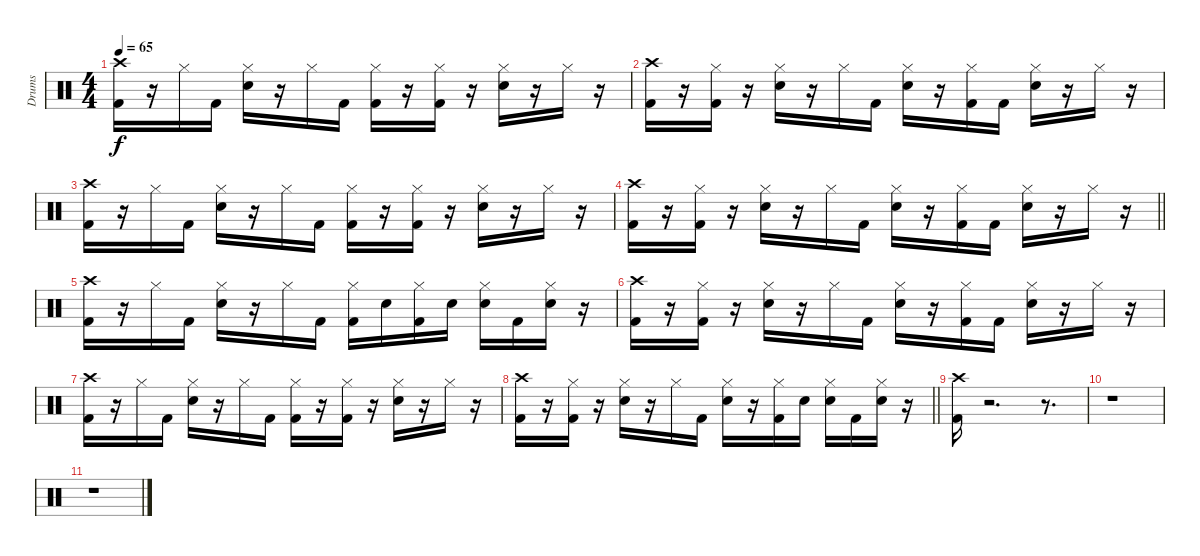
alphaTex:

\track ("Drums" "Drums") {instrument percussion}
\staff {score}
\articulation defaults
\ts (4 4)
\tempo 65
\clef neutral
\ks c
("Crash high (hit)" "Kick (hit) 2").16{dy f} r.16 "Hi-Hat (closed)".16 "Kick (hit) 2".16 ("Hi-Hat (closed)" "Snare (hit) 2").16 r.16 "Hi-Hat (closed)".16 "Kick (hit) 2".16 ("Hi-Hat (closed)" "Kick (hit) 2").16 r.16 ("Hi-Hat (closed)" "Kick (hit) 2").16 r.16 ("Hi-Hat (closed)" "Snare (hit) 2").16 r.16 "Hi-Hat (closed)".16 r.16 |
("Crash high (hit)" "Kick (hit) 2").16 r.16 ("Hi-Hat (closed)" "Kick (hit) 2").16 r.16 ("Hi-Hat (closed)" "Snare (hit) 2").16 r.16 "Hi-Hat (closed)".16 "Kick (hit) 2".16 ("Hi-Hat (closed)" "Snare (hit) 2").16 r.16 ("Hi-Hat (closed)" "Kick (hit) 2").16 "Kick (hit) 2".16 ("Hi-Hat (closed)" "Snare (hit) 2").16 r.16 "Hi-Hat (closed)".16 r.16 |
("Crash high (hit)" "Kick (hit) 2").16 r.16 "Hi-Hat (closed)".16 "Kick (hit) 2".16 ("Hi-Hat (closed)" "Snare (hit) 2").16 r.16 "Hi-Hat (closed)".16 "Kick (hit) 2".16 ("Hi-Hat (closed)" "Kick (hit) 2").16 r.16 ("Hi-Hat (closed)" "Kick (hit) 2").16 r.16 ("Hi-Hat (closed)" "Snare (hit) 2").16 r.16 "Hi-Hat (closed)".16 r.16 |
\barLineRight lightlight
("Crash high (hit)" "Kick (hit) 2").16 r.16 ("Hi-Hat (closed)" "Kick (hit) 2").16 r.16 ("Hi-Hat (closed)" "Snare (hit) 2").16 r.16 "Hi-Hat (closed)".16 "Kick (hit) 2".16 ("Hi-Hat (closed)" "Snare (hit) 2").16 r.16 ("Hi-Hat (closed)" "Kick (hit) 2").16 "Kick (hit) 2".16 ("Hi-Hat (closed)" "Snare (hit) 2").16 r.16 "Hi-Hat (closed)".16 r.16 |
("Crash high (hit)" "Kick (hit) 2").16 r.16 "Hi-Hat (closed)".16 "Kick (hit) 2".16 ("Hi-Hat (closed)" "Snare (hit) 2").16 r.16 "Hi-Hat (closed)".16 "Kick (hit) 2".16 ("Hi-Hat (closed)" "Kick (hit) 2").16 "Snare (hit) 2".16 ("Hi-Hat (closed)" "Kick (hit) 2").16 "Snare (hit) 2".16 ("Hi-Hat (closed)" "Snare (hit) 2").16 "Kick (hit) 2".16 ("Hi-Hat (closed)" "Snare (hit) 2").16 r.16 |
("Crash high (hit)" "Kick (hit) 2").16 r.16 ("Hi-Hat (closed)" "Kick (hit) 2").16 r.16 ("Hi-Hat (closed)" "Snare (hit) 2").16 r.16 "Hi-Hat (closed)".16 "Kick (hit) 2".16 ("Hi-Hat (closed)" "Snare (hit) 2").16 r.16 ("Hi-Hat (closed)" "Kick (hit) 2").16 "Kick (hit) 2".16 ("Hi-Hat (closed)" "Snare (hit) 2").16 r.16 "Hi-Hat (closed)".16 r.16 |
("Crash high (hit)" "Kick (hit) 2").16 r.16 "Hi-Hat (closed)".16 "Kick (hit) 2".16 ("Hi-Hat (closed)" "Snare (hit) 2").16 r.16 "Hi-Hat (closed)".16 "Kick (hit) 2".16 ("Hi-Hat (closed)" "Kick (hit) 2").16 r.16 ("Hi-Hat (closed)" "Kick (hit) 2").16 r.16 ("Hi-Hat (closed)" "Snare (hit) 2").16 r.16 "Hi-Hat (closed)".16 r.16 |
\barLineRight lightlight
("Crash high (hit)" "Kick (hit) 2").16 r.16 ("Hi-Hat (closed)" "Kick (hit) 2").16 r.16 ("Hi-Hat (closed)" "Snare (hit) 2").16 r.16 "Hi-Hat (closed)".16 "Kick (hit) 2".16 ("Hi-Hat (closed)" "Snare (hit) 2").16 r.16 ("Hi-Hat (closed)" "Kick (hit) 2").16 "Snare (hit) 2".16 ("Hi-Hat (closed)" "Snare (hit) 2").16 "Kick (hit) 2".16 ("Hi-Hat (closed)" "Snare (hit) 2").16 r.16 |
("Crash high (hit)" "Kick (hit) 2").16 r.2{d} r.8{d} |
r.1 |
r.1
